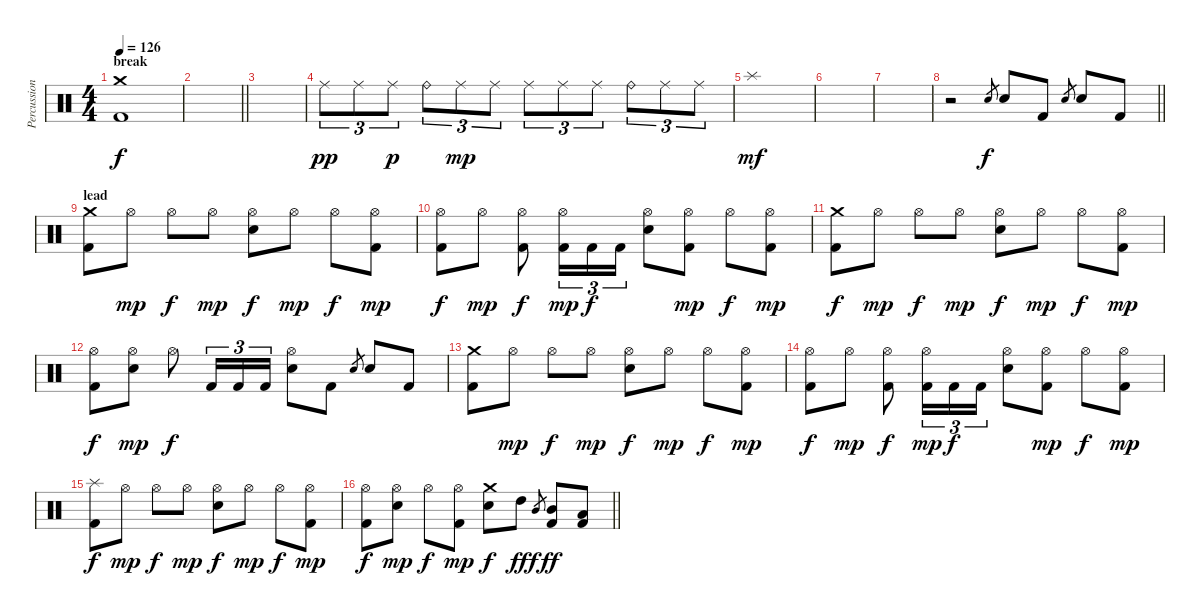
\track ("Percussion" "Percussion") {instrument percussion}
\staff {score}
\articulation defaults
\ts (4 4)
\section ("" "break")
\tempo 126
\clef neutral
\ks c
("Crash medium (hit)" "Kick (hit) 2").1{dy f} |
\barLineRight lightlight
|
|
"Ride (middle)".8{tu (3 2) dy pp} "Ride (middle)".8{tu (3 2)} "Ride (middle)".8{tu (3 2) dy p} "Ride (bell)".8{tu (3 2)} "Ride (middle)".8{tu (3 2) dy mp} "Ride (middle)".8{tu (3 2)} "Ride (middle)".8{tu (3 2)} "Ride (middle)".8{tu (3 2)} "Ride (middle)".8{tu (3 2)} "Ride (bell)".8{tu (3 2)} "Ride (middle)".8{tu (3 2)} "Ride (middle)".8{tu (3 2)} |
"Splash (hit)".1{dy mf} |
|
|
\barLineRight lightlight
r.2 "Electric Snare (hit)".8{gr dy f} "Electric Snare (hit)".8 "Kick (hit) 2".8 "Electric Snare (hit)".8{gr} "Electric Snare (hit)".8 "Kick (hit) 2".8 |
\section ("" "lead")
("Crash medium (hit)" "Kick (hit) 2").8 "Hi-Hat (open)".8{dy mp} "Hi-Hat (open)".8{dy f} "Hi-Hat (open)".8{dy mp} ("Hi-Hat (open)" "Electric Snare (hit)").8{dy f} "Hi-Hat (open)".8{dy mp} "Hi-Hat (open)".8{dy f} ("Hi-Hat (open)" "Kick (hit) 2").8{dy mp} |
("Hi-Hat (open)" "Kick (hit) 2").8{dy f} "Hi-Hat (open)".8{dy mp} ("Hi-Hat (open)" "Kick (hit) 2").8{dy f} ("Hi-Hat (open)" "Kick (hit) 2").16{tu (3 2) dy mp} "Kick (hit) 2".16{tu (3 2) dy f} "Kick (hit) 2".16{tu (3 2)} ("Hi-Hat (open)" "Electric Snare (hit)").8 ("Hi-Hat (open)" "Kick (hit) 2").8{dy mp} "Hi-Hat (open)".8{dy f} ("Hi-Hat (open)" "Kick (hit) 2").8{dy mp} |
("Crash medium (hit)" "Kick (hit) 2").8{dy f} "Hi-Hat (open)".8{dy mp} "Hi-Hat (open)".8{dy f} "Hi-Hat (open)".8{dy mp} ("Hi-Hat (open)" "Electric Snare (hit)").8{dy f} "Hi-Hat (open)".8{dy mp} "Hi-Hat (open)".8{dy f} ("Hi-Hat (open)" "Kick (hit) 2").8{dy mp} |
("Hi-Hat (open)" "Kick (hit) 2").8{dy f} ("Hi-Hat (open)" "Electric Snare (hit)").8{dy mp} "Hi-Hat (open)".8{dy f} "Kick (hit) 2".16{tu (3 2)} "Kick (hit) 2".16{tu (3 2)} "Kick (hit) 2".16{tu (3 2)} ("Hi-Hat (open)" "Electric Snare (hit)").8 "Kick (hit) 2".8 "Electric Snare (hit)".8{gr} "Electric Snare (hit)".8 "Kick (hit) 2".8 |
("Crash medium (hit)" "Kick (hit) 2").8 "Hi-Hat (open)".8{dy mp} "Hi-Hat (open)".8{dy f} "Hi-Hat (open)".8{dy mp} ("Hi-Hat (open)" "Electric Snare (hit)").8{dy f} "Hi-Hat (open)".8{dy mp} "Hi-Hat (open)".8{dy f} ("Hi-Hat (open)" "Kick (hit) 2").8{dy mp} |
("Hi-Hat (open)" "Kick (hit) 2").8{dy f} "Hi-Hat (open)".8{dy mp} ("Hi-Hat (open)" "Kick (hit) 2").8{dy f} ("Hi-Hat (open)" "Kick (hit) 2").16{tu (3 2) dy mp} "Kick (hit) 2".16{tu (3 2) dy f} "Kick (hit) 2".16{tu (3 2)} ("Hi-Hat (open)" "Electric Snare (hit)").8 ("Hi-Hat (open)" "Kick (hit) 2").8{dy mp} "Hi-Hat (open)".8{dy f} ("Hi-Hat (open)" "Kick (hit) 2").8{dy mp} |
("Splash (hit)" "Kick (hit) 2").8{dy f} "Hi-Hat (open)".8{dy mp} "Hi-Hat (open)".8{dy f} "Hi-Hat (open)".8{dy mp} ("Hi-Hat (open)" "Electric Snare (hit)").8{dy f} "Hi-Hat (open)".8{dy mp} "Hi-Hat (open)".8{dy f} ("Hi-Hat (open)" "Kick (hit) 2").8{dy mp} |
\barLineRight lightlight
("Hi-Hat (open)" "Kick (hit) 2").8{dy f} ("Hi-Hat (open)" "Electric Snare (hit)").8{dy mp} "Hi-Hat (open)".8{dy f} ("Hi-Hat (open)" "Kick (hit) 2").8{dy mp} ("Crash medium (hit)" "Electric Snare (hit)").8{dy f} "High Tom (hit)".8{dy ff} "Mid Tom (hit)".8{gr dy f} ("Mid Tom (hit)" "Kick (hit) 2").8{dy ff} ("Low Tom (hit)" "Kick (hit) 2").8
